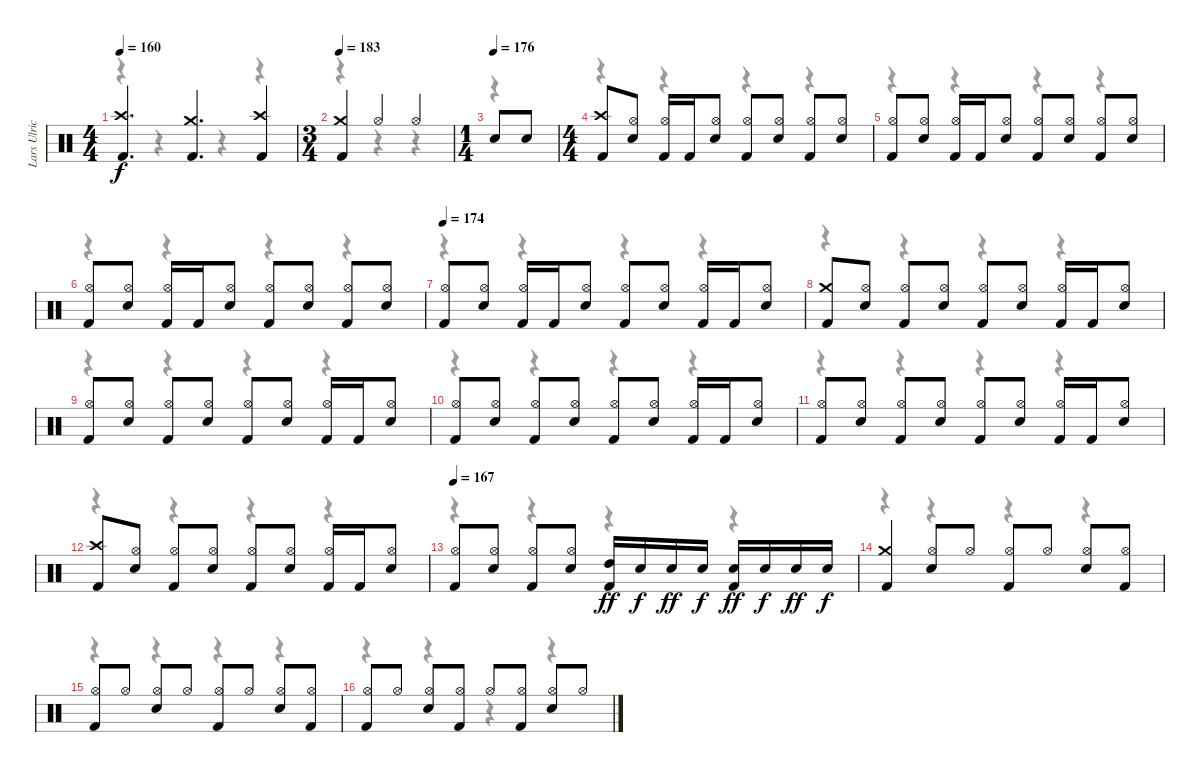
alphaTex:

\track ("Lars Ulrich" "Lars Ulric") {instrument percussion}
\staff {score}
\articulation defaults
\voice
\ts (4 4)
\tempo 160
\clef neutral
\ks c
("Crash high (hit)" "Kick (hit) 2").4{d dy f} ("Crash medium (hit)" "Kick (hit) 2").4{d} ("Crash high (hit)" "Kick (hit) 2").4 |
\ts (3 4)
\tempo 183
("Crash medium (hit)" "Kick (hit) 2").4 "Hi-Hat (open)".4 "Hi-Hat (open)".4 |
\ts (1 4)
\tempo (176)
"Snare (hit) 2".8 "Snare (hit) 2".8 |
\ts (4 4)
("Crash high (hit)" "Kick (hit) 2").8 ("Hi-Hat (open)" "Snare (hit) 2").8 ("Hi-Hat (open)" "Kick (hit) 2").16 "Kick (hit) 2".16 ("Hi-Hat (open)" "Snare (hit) 2").8 ("Hi-Hat (open)" "Kick (hit) 2").8 ("Hi-Hat (open)" "Snare (hit) 2").8 ("Hi-Hat (open)" "Kick (hit) 2").8 ("Hi-Hat (open)" "Snare (hit) 2").8 |
("Hi-Hat (open)" "Kick (hit) 2").8 ("Hi-Hat (open)" "Snare (hit) 2").8 ("Hi-Hat (open)" "Kick (hit) 2").16 "Kick (hit) 2".16 ("Hi-Hat (open)" "Snare (hit) 2").8 ("Hi-Hat (open)" "Kick (hit) 2").8 ("Hi-Hat (open)" "Snare (hit) 2").8 ("Hi-Hat (open)" "Kick (hit) 2").8 ("Hi-Hat (open)" "Snare (hit) 2").8 |
("Hi-Hat (open)" "Kick (hit) 2").8 ("Hi-Hat (open)" "Snare (hit) 2").8 ("Hi-Hat (open)" "Kick (hit) 2").16 "Kick (hit) 2".16 ("Hi-Hat (open)" "Snare (hit) 2").8 ("Hi-Hat (open)" "Kick (hit) 2").8 ("Hi-Hat (open)" "Snare (hit) 2").8 ("Hi-Hat (open)" "Kick (hit) 2").8 ("Hi-Hat (open)" "Snare (hit) 2").8 |
\tempo 174
("Hi-Hat (open)" "Kick (hit) 2").8 ("Hi-Hat (open)" "Snare (hit) 2").8 ("Hi-Hat (open)" "Kick (hit) 2").16 "Kick (hit) 2".16 ("Hi-Hat (open)" "Snare (hit) 2").8 ("Hi-Hat (open)" "Kick (hit) 2").8 ("Hi-Hat (open)" "Snare (hit) 2").8 ("Hi-Hat (open)" "Kick (hit) 2").16 "Kick (hit) 2".16 ("Hi-Hat (open)" "Snare (hit) 2").8 |
("Crash medium (hit)" "Kick (hit) 2").8 ("Hi-Hat (open)" "Snare (hit) 2").8 ("Hi-Hat (open)" "Kick (hit) 2").8 ("Hi-Hat (open)" "Snare (hit) 2").8 ("Hi-Hat (open)" "Kick (hit) 2").8 ("Hi-Hat (open)" "Snare (hit) 2").8 ("Hi-Hat (open)" "Kick (hit) 2").16 "Kick (hit) 2".16 ("Hi-Hat (open)" "Snare (hit) 2").8 |
("Hi-Hat (open)" "Kick (hit) 2").8 ("Hi-Hat (open)" "Snare (hit) 2").8 ("Hi-Hat (open)" "Kick (hit) 2").8 ("Hi-Hat (open)" "Snare (hit) 2").8 ("Hi-Hat (open)" "Kick (hit) 2").8 ("Hi-Hat (open)" "Snare (hit) 2").8 ("Hi-Hat (open)" "Kick (hit) 2").16 "Kick (hit) 2".16 ("Hi-Hat (open)" "Snare (hit) 2").8 |
("Hi-Hat (open)" "Kick (hit) 2").8 ("Hi-Hat (open)" "Snare (hit) 2").8 ("Hi-Hat (open)" "Kick (hit) 2").8 ("Hi-Hat (open)" "Snare (hit) 2").8 ("Hi-Hat (open)" "Kick (hit) 2").8 ("Hi-Hat (open)" "Snare (hit) 2").8 ("Hi-Hat (open)" "Kick (hit) 2").16 "Kick (hit) 2".16 ("Hi-Hat (open)" "Snare (hit) 2").8 |
("Hi-Hat (open)" "Kick (hit) 2").8 ("Hi-Hat (open)" "Snare (hit) 2").8 ("Hi-Hat (open)" "Kick (hit) 2").8 ("Hi-Hat (open)" "Snare (hit) 2").8 ("Hi-Hat (open)" "Kick (hit) 2").8 ("Hi-Hat (open)" "Snare (hit) 2").8 ("Hi-Hat (open)" "Kick (hit) 2").16 "Kick (hit) 2".16 ("Hi-Hat (open)" "Snare (hit) 2").8 |
("Crash high (hit)" "Kick (hit) 2").8 ("Hi-Hat (open)" "Snare (hit) 2").8 ("Hi-Hat (open)" "Kick (hit) 2").8 ("Hi-Hat (open)" "Snare (hit) 2").8 ("Hi-Hat (open)" "Kick (hit) 2").8 ("Hi-Hat (open)" "Snare (hit) 2").8 ("Hi-Hat (open)" "Kick (hit) 2").16 "Kick (hit) 2".16 ("Hi-Hat (open)" "Snare (hit) 2").8 |
\tempo 167
("Hi-Hat (open)" "Kick (hit) 2").8 ("Hi-Hat (open)" "Snare (hit) 2").8 ("Hi-Hat (open)" "Kick (hit) 2").8 ("Hi-Hat (open)" "Snare (hit) 2").8 ("High Tom (hit)" "Kick (hit) 2").16{dy ff} "Snare (hit) 2".16{dy f} "Snare (hit) 2".16{dy ff} "Snare (hit) 2".16{dy f} ("Snare (hit) 2" "Kick (hit) 2").16{dy ff} "Snare (hit) 2".16{dy f} "Snare (hit) 2".16{dy ff} "Snare (hit) 2".16{dy f} |
("Crash medium (hit)" "Kick (hit) 2").4 ("Hi-Hat (open)" "Snare (hit) 2").8 "Hi-Hat (open)".8 ("Hi-Hat (open)" "Kick (hit) 2").8 "Hi-Hat (open)".8 ("Hi-Hat (open)" "Snare (hit) 2").8 ("Hi-Hat (open)" "Kick (hit) 2").8 |
("Hi-Hat (open)" "Kick (hit) 2").8 "Hi-Hat (open)".8 ("Hi-Hat (open)" "Snare (hit) 2").8 "Hi-Hat (open)".8 ("Hi-Hat (open)" "Kick (hit) 2").8 "Hi-Hat (open)".8 ("Hi-Hat (open)" "Snare (hit) 2").8 ("Hi-Hat (open)" "Kick (hit) 2").8 |
("Hi-Hat (open)" "Kick (hit) 2").8 "Hi-Hat (open)".8 ("Hi-Hat (open)" "Snare (hit) 2").8 ("Hi-Hat (open)" "Kick (hit) 2").8 "Hi-Hat (open)".8 ("Hi-Hat (open)" "Kick (hit) 2").8 ("Hi-Hat (open)" "Snare (hit) 2").8 "Hi-Hat (open)".8
\voice
\clef neutral
\ottava regular
\simile none
\ks c
r.4{dy f} r.4 r.4 r.4 |
r.4 r.4 r.4 |
r.4 |
r.4 r.4 r.4 r.4 |
r.4 r.4 r.4 r.4 |
r.4 r.4 r.4 r.4 |
r.4 r.4 r.4 r.4 |
r.4 r.4 r.4 r.4 |
r.4 r.4 r.4 r.4 |
r.4 r.4 r.4 r.4 |
r.4 r.4 r.4 r.4 |
r.4 r.4 r.4 r.4 |
r.4 r.4 r.4 r.4 |
r.4 r.4 r.4 r.4 |
r.4 r.4 r.4 r.4 |
r.4 r.4 r.4 r.4
